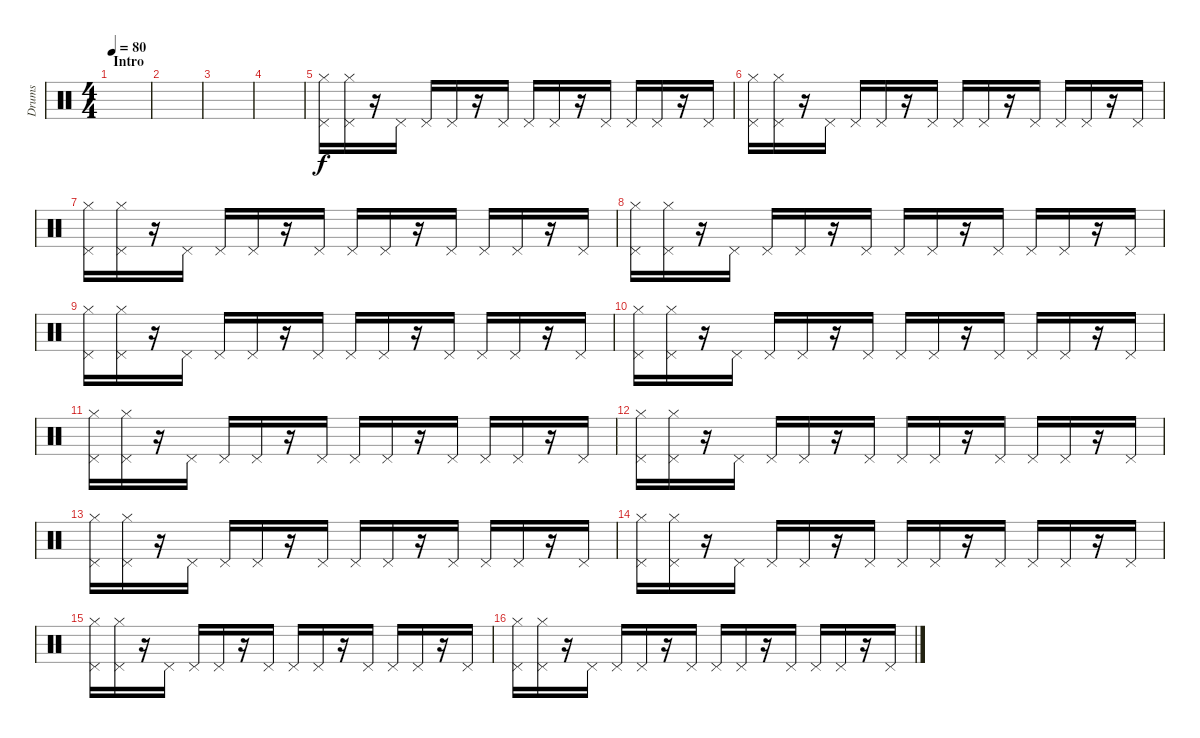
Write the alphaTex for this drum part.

\track ("Drums" "Drums") {instrument percussion}
\staff {score}
\articulation defaults
\ts (4 4)
\section ("" "Intro")
\tempo 80
\clef neutral
\ks c
|
|
|
|
("Hi-Hat (closed)" "Pedal Hi-Hat (hit)").16{volume 5} ("Hi-Hat (closed)" "Pedal Hi-Hat (hit)").16 r.16 "Pedal Hi-Hat (hit)".16 "Pedal Hi-Hat (hit)".16 "Pedal Hi-Hat (hit)".16 r.16 "Pedal Hi-Hat (hit)".16 "Pedal Hi-Hat (hit)".16 "Pedal Hi-Hat (hit)".16 r.16 "Pedal Hi-Hat (hit)".16 "Pedal Hi-Hat (hit)".16 "Pedal Hi-Hat (hit)".16 r.16 "Pedal Hi-Hat (hit)".16 |
("Hi-Hat (closed)" "Pedal Hi-Hat (hit)").16 ("Hi-Hat (closed)" "Pedal Hi-Hat (hit)").16 r.16 "Pedal Hi-Hat (hit)".16 "Pedal Hi-Hat (hit)".16 "Pedal Hi-Hat (hit)".16 r.16 "Pedal Hi-Hat (hit)".16 "Pedal Hi-Hat (hit)".16 "Pedal Hi-Hat (hit)".16 r.16 "Pedal Hi-Hat (hit)".16 "Pedal Hi-Hat (hit)".16 "Pedal Hi-Hat (hit)".16 r.16 "Pedal Hi-Hat (hit)".16 |
("Hi-Hat (closed)" "Pedal Hi-Hat (hit)").16 ("Hi-Hat (closed)" "Pedal Hi-Hat (hit)").16 r.16 "Pedal Hi-Hat (hit)".16 "Pedal Hi-Hat (hit)".16 "Pedal Hi-Hat (hit)".16 r.16 "Pedal Hi-Hat (hit)".16 "Pedal Hi-Hat (hit)".16 "Pedal Hi-Hat (hit)".16 r.16 "Pedal Hi-Hat (hit)".16 "Pedal Hi-Hat (hit)".16 "Pedal Hi-Hat (hit)".16 r.16 "Pedal Hi-Hat (hit)".16 |
("Hi-Hat (closed)" "Pedal Hi-Hat (hit)").16 ("Hi-Hat (closed)" "Pedal Hi-Hat (hit)").16 r.16 "Pedal Hi-Hat (hit)".16 "Pedal Hi-Hat (hit)".16 "Pedal Hi-Hat (hit)".16 r.16 "Pedal Hi-Hat (hit)".16 "Pedal Hi-Hat (hit)".16 "Pedal Hi-Hat (hit)".16 r.16 "Pedal Hi-Hat (hit)".16 "Pedal Hi-Hat (hit)".16 "Pedal Hi-Hat (hit)".16 r.16 "Pedal Hi-Hat (hit)".16 |
("Hi-Hat (closed)" "Pedal Hi-Hat (hit)").16 ("Hi-Hat (closed)" "Pedal Hi-Hat (hit)").16 r.16 "Pedal Hi-Hat (hit)".16 "Pedal Hi-Hat (hit)".16 "Pedal Hi-Hat (hit)".16 r.16 "Pedal Hi-Hat (hit)".16 "Pedal Hi-Hat (hit)".16 "Pedal Hi-Hat (hit)".16 r.16 "Pedal Hi-Hat (hit)".16 "Pedal Hi-Hat (hit)".16 "Pedal Hi-Hat (hit)".16 r.16 "Pedal Hi-Hat (hit)".16 |
("Hi-Hat (closed)" "Pedal Hi-Hat (hit)").16 ("Hi-Hat (closed)" "Pedal Hi-Hat (hit)").16 r.16 "Pedal Hi-Hat (hit)".16 "Pedal Hi-Hat (hit)".16 "Pedal Hi-Hat (hit)".16 r.16 "Pedal Hi-Hat (hit)".16 "Pedal Hi-Hat (hit)".16 "Pedal Hi-Hat (hit)".16 r.16 "Pedal Hi-Hat (hit)".16 "Pedal Hi-Hat (hit)".16 "Pedal Hi-Hat (hit)".16 r.16 "Pedal Hi-Hat (hit)".16 |
("Hi-Hat (closed)" "Pedal Hi-Hat (hit)").16 ("Hi-Hat (closed)" "Pedal Hi-Hat (hit)").16 r.16 "Pedal Hi-Hat (hit)".16 "Pedal Hi-Hat (hit)".16 "Pedal Hi-Hat (hit)".16 r.16 "Pedal Hi-Hat (hit)".16 "Pedal Hi-Hat (hit)".16 "Pedal Hi-Hat (hit)".16 r.16 "Pedal Hi-Hat (hit)".16 "Pedal Hi-Hat (hit)".16 "Pedal Hi-Hat (hit)".16 r.16 "Pedal Hi-Hat (hit)".16 |
("Hi-Hat (closed)" "Pedal Hi-Hat (hit)").16 ("Hi-Hat (closed)" "Pedal Hi-Hat (hit)").16 r.16 "Pedal Hi-Hat (hit)".16 "Pedal Hi-Hat (hit)".16 "Pedal Hi-Hat (hit)".16 r.16 "Pedal Hi-Hat (hit)".16 "Pedal Hi-Hat (hit)".16 "Pedal Hi-Hat (hit)".16 r.16 "Pedal Hi-Hat (hit)".16 "Pedal Hi-Hat (hit)".16 "Pedal Hi-Hat (hit)".16 r.16 "Pedal Hi-Hat (hit)".16 |
("Hi-Hat (closed)" "Pedal Hi-Hat (hit)").16 ("Hi-Hat (closed)" "Pedal Hi-Hat (hit)").16 r.16 "Pedal Hi-Hat (hit)".16 "Pedal Hi-Hat (hit)".16 "Pedal Hi-Hat (hit)".16 r.16 "Pedal Hi-Hat (hit)".16 "Pedal Hi-Hat (hit)".16 "Pedal Hi-Hat (hit)".16 r.16 "Pedal Hi-Hat (hit)".16 "Pedal Hi-Hat (hit)".16 "Pedal Hi-Hat (hit)".16 r.16 "Pedal Hi-Hat (hit)".16 |
("Hi-Hat (closed)" "Pedal Hi-Hat (hit)").16 ("Hi-Hat (closed)" "Pedal Hi-Hat (hit)").16 r.16 "Pedal Hi-Hat (hit)".16 "Pedal Hi-Hat (hit)".16 "Pedal Hi-Hat (hit)".16 r.16 "Pedal Hi-Hat (hit)".16 "Pedal Hi-Hat (hit)".16 "Pedal Hi-Hat (hit)".16 r.16 "Pedal Hi-Hat (hit)".16 "Pedal Hi-Hat (hit)".16 "Pedal Hi-Hat (hit)".16 r.16 "Pedal Hi-Hat (hit)".16 |
("Hi-Hat (closed)" "Pedal Hi-Hat (hit)").16 ("Hi-Hat (closed)" "Pedal Hi-Hat (hit)").16 r.16 "Pedal Hi-Hat (hit)".16 "Pedal Hi-Hat (hit)".16 "Pedal Hi-Hat (hit)".16 r.16 "Pedal Hi-Hat (hit)".16 "Pedal Hi-Hat (hit)".16 "Pedal Hi-Hat (hit)".16 r.16 "Pedal Hi-Hat (hit)".16 "Pedal Hi-Hat (hit)".16 "Pedal Hi-Hat (hit)".16 r.16 "Pedal Hi-Hat (hit)".16 |
("Hi-Hat (closed)" "Pedal Hi-Hat (hit)").16 ("Hi-Hat (closed)" "Pedal Hi-Hat (hit)").16 r.16 "Pedal Hi-Hat (hit)".16 "Pedal Hi-Hat (hit)".16 "Pedal Hi-Hat (hit)".16 r.16 "Pedal Hi-Hat (hit)".16 "Pedal Hi-Hat (hit)".16 "Pedal Hi-Hat (hit)".16 r.16 "Pedal Hi-Hat (hit)".16 "Pedal Hi-Hat (hit)".16 "Pedal Hi-Hat (hit)".16 r.16 "Pedal Hi-Hat (hit)".16
